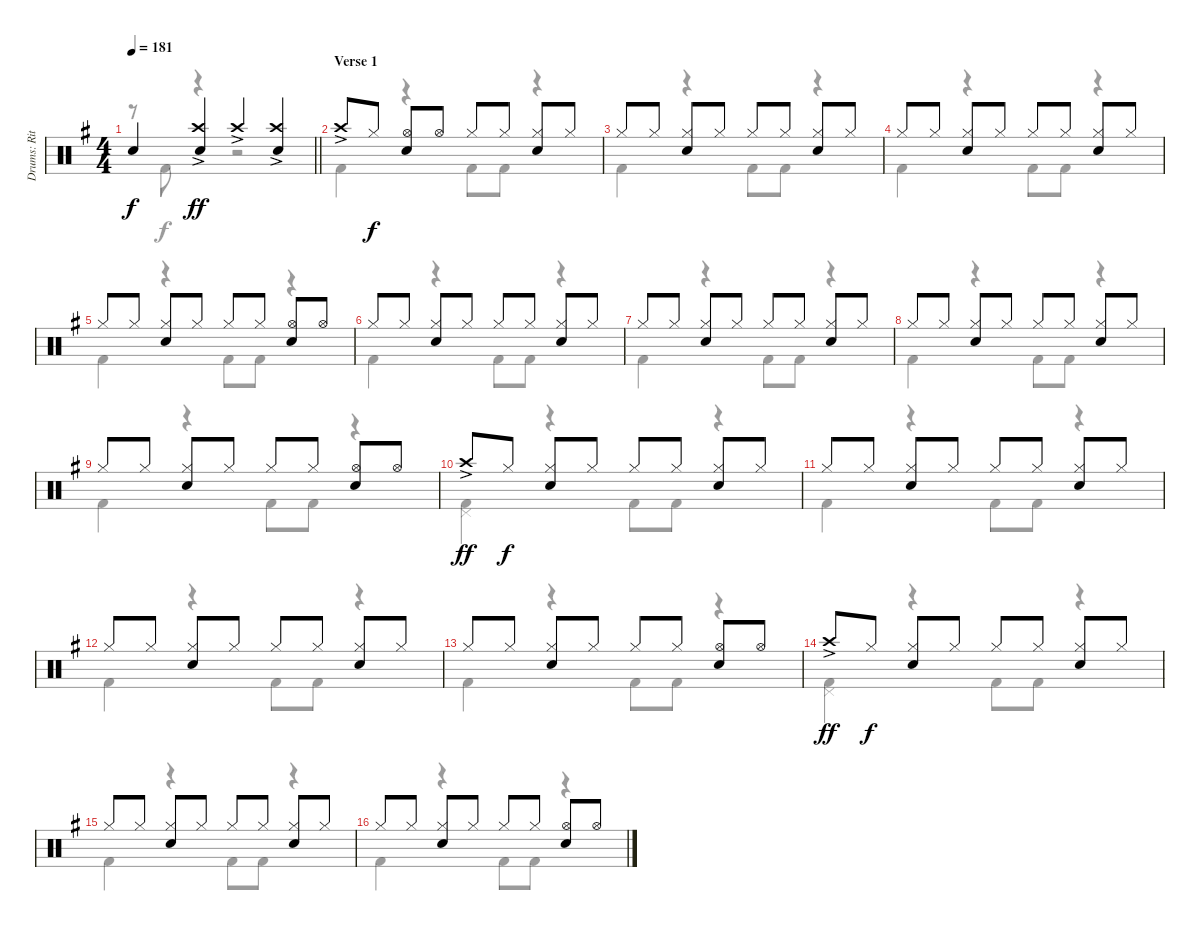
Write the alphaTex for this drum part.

\track ("Drums: Ritsu Tianaka" "Drums: Rit") {instrument percussion}
\staff {score}
\articulation defaults
\voice
\ts (4 4)
\tempo 181
\clef neutral
\barLineRight lightlight
\ks g "Snare (hit) 2".4{dy f}
("Crash high (hit)"{ac} "Snare (hit) 2").4{dy ff} "Crash high (hit)"{ac}.4 ("Crash high (hit)"{ac} "Snare (hit) 2").4 |
\section ("" "Verse 1")
"Crash high (hit)"{ac}.8 "Hi-Hat (closed)".8{dy f} ("Hi-Hat (open)" "Snare (hit) 2").8 "Hi-Hat (open)".8 "Hi-Hat (closed)".8 "Hi-Hat (closed)".8 ("Hi-Hat (closed)" "Snare (hit) 2").8 "Hi-Hat (closed)".8 |
"Hi-Hat (closed)".8 "Hi-Hat (closed)".8 ("Hi-Hat (closed)" "Snare (hit) 2").8 "Hi-Hat (closed)".8 "Hi-Hat (closed)".8 "Hi-Hat (closed)".8 ("Hi-Hat (closed)" "Snare (hit) 2").8 "Hi-Hat (closed)".8 |
"Hi-Hat (closed)".8 "Hi-Hat (closed)".8 ("Hi-Hat (closed)" "Snare (hit) 2").8 "Hi-Hat (closed)".8 "Hi-Hat (closed)".8 "Hi-Hat (closed)".8 ("Hi-Hat (closed)" "Snare (hit) 2").8 "Hi-Hat (closed)".8 |
"Hi-Hat (closed)".8 "Hi-Hat (closed)".8 ("Hi-Hat (closed)" "Snare (hit) 2").8 "Hi-Hat (closed)".8 "Hi-Hat (closed)".8 "Hi-Hat (closed)".8 ("Hi-Hat (open)" "Snare (hit) 2").8 "Hi-Hat (open)".8 |
"Hi-Hat (closed)".8 "Hi-Hat (closed)".8 ("Hi-Hat (closed)" "Snare (hit) 2").8 "Hi-Hat (closed)".8 "Hi-Hat (closed)".8 "Hi-Hat (closed)".8 ("Hi-Hat (closed)" "Snare (hit) 2").8 "Hi-Hat (closed)".8 |
"Hi-Hat (closed)".8 "Hi-Hat (closed)".8 ("Hi-Hat (closed)" "Snare (hit) 2").8 "Hi-Hat (closed)".8 "Hi-Hat (closed)".8 "Hi-Hat (closed)".8 ("Hi-Hat (closed)" "Snare (hit) 2").8 "Hi-Hat (closed)".8 |
"Hi-Hat (closed)".8 "Hi-Hat (closed)".8 ("Hi-Hat (closed)" "Snare (hit) 2").8 "Hi-Hat (closed)".8 "Hi-Hat (closed)".8 "Hi-Hat (closed)".8 ("Hi-Hat (closed)" "Snare (hit) 2").8 "Hi-Hat (closed)".8 |
"Hi-Hat (closed)".8 "Hi-Hat (closed)".8 ("Hi-Hat (closed)" "Snare (hit) 2").8 "Hi-Hat (closed)".8 "Hi-Hat (closed)".8 "Hi-Hat (closed)".8 ("Hi-Hat (open)" "Snare (hit) 2").8 "Hi-Hat (open)".8 |
"Crash high (hit)"{ac}.8{dy ff} "Hi-Hat (closed)".8{dy f} ("Hi-Hat (closed)" "Snare (hit) 2").8 "Hi-Hat (closed)".8 "Hi-Hat (closed)".8 "Hi-Hat (closed)".8 ("Hi-Hat (closed)" "Snare (hit) 2").8 "Hi-Hat (closed)".8 |
"Hi-Hat (closed)".8 "Hi-Hat (closed)".8 ("Hi-Hat (closed)" "Snare (hit) 2").8 "Hi-Hat (closed)".8 "Hi-Hat (closed)".8 "Hi-Hat (closed)".8 ("Hi-Hat (closed)" "Snare (hit) 2").8 "Hi-Hat (closed)".8 |
"Hi-Hat (closed)".8 "Hi-Hat (closed)".8 ("Hi-Hat (closed)" "Snare (hit) 2").8 "Hi-Hat (closed)".8 "Hi-Hat (closed)".8 "Hi-Hat (closed)".8 ("Hi-Hat (closed)" "Snare (hit) 2").8 "Hi-Hat (closed)".8 |
"Hi-Hat (closed)".8 "Hi-Hat (closed)".8 ("Hi-Hat (closed)" "Snare (hit) 2").8 "Hi-Hat (closed)".8 "Hi-Hat (closed)".8 "Hi-Hat (closed)".8 ("Hi-Hat (open)" "Snare (hit) 2").8 "Hi-Hat (open)".8 |
"Crash high (hit)"{ac}.8{dy ff} "Hi-Hat (closed)".8{dy f} ("Hi-Hat (closed)" "Snare (hit) 2").8 "Hi-Hat (closed)".8 "Hi-Hat (closed)".8 "Hi-Hat (closed)".8 ("Hi-Hat (closed)" "Snare (hit) 2").8 "Hi-Hat (closed)".8 |
"Hi-Hat (closed)".8 "Hi-Hat (closed)".8 ("Hi-Hat (closed)" "Snare (hit) 2").8 "Hi-Hat (closed)".8 "Hi-Hat (closed)".8 "Hi-Hat (closed)".8 ("Hi-Hat (closed)" "Snare (hit) 2").8 "Hi-Hat (closed)".8 |
"Hi-Hat (closed)".8 "Hi-Hat (closed)".8 ("Hi-Hat (closed)" "Snare (hit) 2").8 "Hi-Hat (closed)".8 "Hi-Hat (closed)".8 "Hi-Hat (closed)".8 ("Hi-Hat (open)" "Snare (hit) 2").8 "Hi-Hat (open)".8
\voice
\clef neutral
\ottava regular
\simile none
\barLineRight lightlight
\ks g
r.8{dy f} "Kick (hit) 2".8 r.4 r.2 |
"Kick (hit) 2".4 r.4 "Kick (hit) 2".8 "Kick (hit) 2".8 r.4 |
"Kick (hit) 2".4 r.4 "Kick (hit) 2".8 "Kick (hit) 2".8 r.4 |
"Kick (hit) 2".4 r.4 "Kick (hit) 2".8 "Kick (hit) 2".8 r.4 |
"Kick (hit) 2".4 r.4 "Kick (hit) 2".8 "Kick (hit) 2".8 r.4 |
"Kick (hit) 2".4 r.4 "Kick (hit) 2".8 "Kick (hit) 2".8 r.4 |
"Kick (hit) 2".4 r.4 "Kick (hit) 2".8 "Kick (hit) 2".8 r.4 |
"Kick (hit) 2".4 r.4 "Kick (hit) 2".8 "Kick (hit) 2".8 r.4 |
"Kick (hit) 2".4 r.4 "Kick (hit) 2".8 "Kick (hit) 2".8 r.4 |
("Pedal Hi-Hat (hit)" "Kick (hit) 2").4 r.4 "Kick (hit) 2".8 "Kick (hit) 2".8 r.4 |
"Kick (hit) 2".4 r.4 "Kick (hit) 2".8 "Kick (hit) 2".8 r.4 |
"Kick (hit) 2".4 r.4 "Kick (hit) 2".8 "Kick (hit) 2".8 r.4 |
"Kick (hit) 2".4 r.4 "Kick (hit) 2".8 "Kick (hit) 2".8 r.4 |
("Pedal Hi-Hat (hit)" "Kick (hit) 2").4 r.4 "Kick (hit) 2".8 "Kick (hit) 2".8 r.4 |
"Kick (hit) 2".4 r.4 "Kick (hit) 2".8 "Kick (hit) 2".8 r.4 |
"Kick (hit) 2".4 r.4 "Kick (hit) 2".8 "Kick (hit) 2".8 r.4
